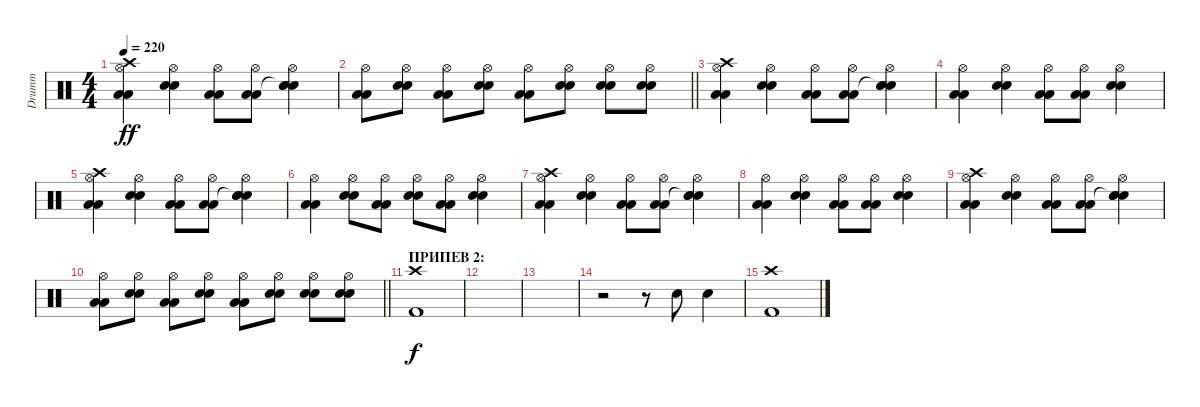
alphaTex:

\track ("Drumm" "Drumm") {instrument percussion}
\staff {score}
\articulation defaults
\ts (4 4)
\tempo 220
\clef neutral
\ks c
("Hi-Hat (open)" "Crash high (hit)" "Low Floor Tom (hit)" "Low Floor Tom (hit)").4{dy ff} ("Hi-Hat (open)" "Electric Snare (hit)" "Electric Snare (hit)").4 ("Hi-Hat (open)" "Low Floor Tom (hit)" "Low Floor Tom (hit)").8 ("Hi-Hat (open)" "Low Floor Tom (hit)" "Low Floor Tom (hit)").8 ("Hi-Hat (open)" "Snare (hit)"{t} "Electric Snare (hit)" "Electric Snare (hit)").4 |
\barLineRight lightlight
("Hi-Hat (open)" "Low Floor Tom (hit)" "Low Floor Tom (hit)").8 ("Hi-Hat (open)" "Electric Snare (hit)" "Electric Snare (hit)").8 ("Hi-Hat (open)" "Low Floor Tom (hit)" "Low Floor Tom (hit)").8 ("Hi-Hat (open)" "Electric Snare (hit)" "Electric Snare (hit)").8 ("Hi-Hat (open)" "Low Floor Tom (hit)" "Low Floor Tom (hit)").8 ("Hi-Hat (open)" "Electric Snare (hit)" "Electric Snare (hit)").8 ("Hi-Hat (open)" "Electric Snare (hit)" "Electric Snare (hit)").8 ("Hi-Hat (open)" "Electric Snare (hit)" "Electric Snare (hit)").8 |
("Hi-Hat (open)" "Crash high (hit)" "Low Floor Tom (hit)" "Low Floor Tom (hit)").4 ("Hi-Hat (open)" "Electric Snare (hit)" "Electric Snare (hit)").4 ("Hi-Hat (open)" "Low Floor Tom (hit)" "Low Floor Tom (hit)").8 ("Hi-Hat (open)" "Low Floor Tom (hit)" "Low Floor Tom (hit)").8 ("Hi-Hat (open)" "Snare (hit)"{t} "Electric Snare (hit)" "Electric Snare (hit)").4 |
("Hi-Hat (open)" "Low Floor Tom (hit)" "Low Floor Tom (hit)").4 ("Hi-Hat (open)" "Electric Snare (hit)" "Electric Snare (hit)").4 ("Hi-Hat (open)" "Low Floor Tom (hit)" "Low Floor Tom (hit)").8 ("Hi-Hat (open)" "Low Floor Tom (hit)" "Low Floor Tom (hit)").8 ("Hi-Hat (open)" "Electric Snare (hit)" "Electric Snare (hit)").4 |
("Hi-Hat (open)" "Crash high (hit)" "Low Floor Tom (hit)" "Low Floor Tom (hit)").4 ("Hi-Hat (open)" "Electric Snare (hit)" "Electric Snare (hit)").4 ("Hi-Hat (open)" "Low Floor Tom (hit)" "Low Floor Tom (hit)").8 ("Hi-Hat (open)" "Low Floor Tom (hit)" "Low Floor Tom (hit)").8 ("Hi-Hat (open)" "Snare (hit)"{t} "Electric Snare (hit)" "Electric Snare (hit)").4 |
("Hi-Hat (open)" "Low Floor Tom (hit)" "Low Floor Tom (hit)").4 ("Hi-Hat (open)" "Electric Snare (hit)" "Electric Snare (hit)").8 ("Hi-Hat (open)" "Low Floor Tom (hit)" "Low Floor Tom (hit)").8 ("Hi-Hat (open)" "Electric Snare (hit)" "Electric Snare (hit)").8 ("Hi-Hat (open)" "Low Floor Tom (hit)" "Low Floor Tom (hit)").8 ("Hi-Hat (open)" "Electric Snare (hit)" "Electric Snare (hit)").4 |
("Hi-Hat (open)" "Crash high (hit)" "Low Floor Tom (hit)" "Low Floor Tom (hit)").4 ("Hi-Hat (open)" "Electric Snare (hit)" "Electric Snare (hit)").4 ("Hi-Hat (open)" "Low Floor Tom (hit)" "Low Floor Tom (hit)").8 ("Hi-Hat (open)" "Low Floor Tom (hit)" "Low Floor Tom (hit)").8 ("Hi-Hat (open)" "Snare (hit)"{t} "Electric Snare (hit)" "Electric Snare (hit)").4 |
("Hi-Hat (open)" "Low Floor Tom (hit)" "Low Floor Tom (hit)").4 ("Hi-Hat (open)" "Electric Snare (hit)" "Electric Snare (hit)").4 ("Hi-Hat (open)" "Low Floor Tom (hit)" "Low Floor Tom (hit)").8 ("Hi-Hat (open)" "Low Floor Tom (hit)" "Low Floor Tom (hit)").8 ("Hi-Hat (open)" "Electric Snare (hit)" "Electric Snare (hit)").4 |
("Hi-Hat (open)" "Crash high (hit)" "Low Floor Tom (hit)" "Low Floor Tom (hit)").4 ("Hi-Hat (open)" "Electric Snare (hit)" "Electric Snare (hit)").4 ("Hi-Hat (open)" "Low Floor Tom (hit)" "Low Floor Tom (hit)").8 ("Hi-Hat (open)" "Low Floor Tom (hit)" "Low Floor Tom (hit)").8 ("Hi-Hat (open)" "Snare (hit)"{t} "Electric Snare (hit)" "Electric Snare (hit)").4 |
\barLineRight lightlight
("Hi-Hat (open)" "Low Floor Tom (hit)" "Low Floor Tom (hit)").8 ("Hi-Hat (open)" "Electric Snare (hit)" "Electric Snare (hit)").8 ("Hi-Hat (open)" "Low Floor Tom (hit)" "Low Floor Tom (hit)").8 ("Hi-Hat (open)" "Electric Snare (hit)" "Electric Snare (hit)").8 ("Hi-Hat (open)" "Low Floor Tom (hit)" "Low Floor Tom (hit)").8 ("Hi-Hat (open)" "Electric Snare (hit)" "Electric Snare (hit)").8 ("Hi-Hat (open)" "Electric Snare (hit)" "Electric Snare (hit)").8 ("Hi-Hat (open)" "Electric Snare (hit)" "Electric Snare (hit)").8 |
\section ("" "ПРИПЕВ 2:")
("Crash high (hit)" "Kick (hit) 2").1{dy f} |
|
|
r.2 r.8 "Snare (hit) 2".8 "Snare (hit) 2".4 |
("Crash high (hit)" "Kick (hit) 2").1
